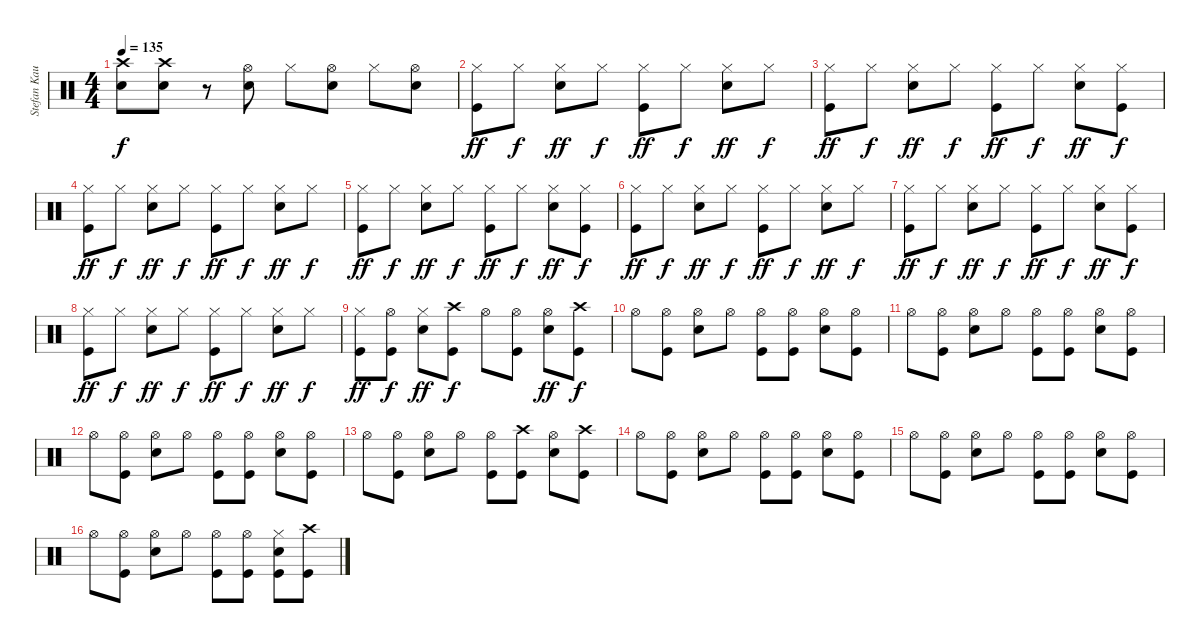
\track ("Stefan Kaufmann" "Stefan Kau") {instrument percussion}
\staff {score}
\articulation defaults
\ts (4 4)
\tempo 135
\clef neutral
\ks c
("Crash high (hit)" "Snare (hit) 2").8{dy f} ("Crash high (hit)" "Snare (hit) 2").8 r.8 ("Hi-Hat (open)" "Snare (hit) 2").8 "Hi-Hat (closed)".8 ("Hi-Hat (open)" "Snare (hit) 2").8 "Hi-Hat (closed)".8 ("Hi-Hat (open)" "Snare (hit) 2").8 |
("Hi-Hat (closed)" "Kick (hit)").8{dy ff} "Hi-Hat (closed)".8{dy f} ("Hi-Hat (closed)" "Snare (hit) 2").8{dy ff} "Hi-Hat (closed)".8{dy f} ("Hi-Hat (closed)" "Kick (hit)").8{dy ff} "Hi-Hat (closed)".8{dy f} ("Hi-Hat (closed)" "Snare (hit) 2").8{dy ff} "Hi-Hat (closed)".8{dy f} |
("Hi-Hat (closed)" "Kick (hit)").8{dy ff} "Hi-Hat (closed)".8{dy f} ("Hi-Hat (closed)" "Snare (hit) 2").8{dy ff} "Hi-Hat (closed)".8{dy f} ("Hi-Hat (closed)" "Kick (hit)").8{dy ff} "Hi-Hat (closed)".8{dy f} ("Hi-Hat (closed)" "Snare (hit) 2").8{dy ff} ("Hi-Hat (closed)" "Kick (hit)").8{dy f} |
("Hi-Hat (closed)" "Kick (hit)").8{dy ff} "Hi-Hat (closed)".8{dy f} ("Hi-Hat (closed)" "Snare (hit) 2").8{dy ff} "Hi-Hat (closed)".8{dy f} ("Hi-Hat (closed)" "Kick (hit)").8{dy ff} "Hi-Hat (closed)".8{dy f} ("Hi-Hat (closed)" "Snare (hit) 2").8{dy ff} "Hi-Hat (closed)".8{dy f} |
("Hi-Hat (closed)" "Kick (hit)").8{dy ff} "Hi-Hat (closed)".8{dy f} ("Hi-Hat (closed)" "Snare (hit) 2").8{dy ff} "Hi-Hat (closed)".8{dy f} ("Hi-Hat (closed)" "Kick (hit)").8{dy ff} "Hi-Hat (closed)".8{dy f} ("Hi-Hat (closed)" "Snare (hit) 2").8{dy ff} ("Hi-Hat (closed)" "Kick (hit)").8{dy f} |
("Hi-Hat (closed)" "Kick (hit)").8{dy ff} "Hi-Hat (closed)".8{dy f} ("Hi-Hat (closed)" "Snare (hit) 2").8{dy ff} "Hi-Hat (closed)".8{dy f} ("Hi-Hat (closed)" "Kick (hit)").8{dy ff} "Hi-Hat (closed)".8{dy f} ("Hi-Hat (closed)" "Snare (hit) 2").8{dy ff} "Hi-Hat (closed)".8{dy f} |
("Hi-Hat (closed)" "Kick (hit)").8{dy ff} "Hi-Hat (closed)".8{dy f} ("Hi-Hat (closed)" "Snare (hit) 2").8{dy ff} "Hi-Hat (closed)".8{dy f} ("Hi-Hat (closed)" "Kick (hit)").8{dy ff} "Hi-Hat (closed)".8{dy f} ("Hi-Hat (closed)" "Snare (hit) 2").8{dy ff} ("Hi-Hat (closed)" "Kick (hit)").8{dy f} |
("Hi-Hat (closed)" "Kick (hit)").8{dy ff} "Hi-Hat (closed)".8{dy f} ("Hi-Hat (closed)" "Snare (hit) 2").8{dy ff} "Hi-Hat (closed)".8{dy f} ("Hi-Hat (closed)" "Kick (hit)").8{dy ff} "Hi-Hat (closed)".8{dy f} ("Hi-Hat (closed)" "Snare (hit) 2").8{dy ff} "Hi-Hat (closed)".8{dy f} |
("Hi-Hat (closed)" "Kick (hit)").8{dy ff} ("Hi-Hat (open)" "Kick (hit)").8{dy f} ("Hi-Hat (closed)" "Snare (hit) 2").8{dy ff} ("Crash high (hit)" "Kick (hit)").8{dy f} "Hi-Hat (open)".8 ("Hi-Hat (open)" "Kick (hit)").8 ("Hi-Hat (open)" "Snare (hit) 2").8{dy ff} ("Crash high (hit)" "Kick (hit)").8{dy f} |
"Hi-Hat (open)".8 ("Hi-Hat (open)" "Kick (hit)").8 ("Hi-Hat (open)" "Snare (hit) 2").8 "Hi-Hat (open)".8 ("Hi-Hat (open)" "Kick (hit)").8 ("Hi-Hat (open)" "Kick (hit)").8 ("Hi-Hat (open)" "Snare (hit) 2").8 ("Hi-Hat (open)" "Kick (hit)").8 |
"Hi-Hat (open)".8 ("Hi-Hat (open)" "Kick (hit)").8 ("Hi-Hat (open)" "Snare (hit) 2").8 "Hi-Hat (open)".8 ("Hi-Hat (open)" "Kick (hit)").8 ("Hi-Hat (open)" "Kick (hit)").8 ("Hi-Hat (open)" "Snare (hit) 2").8 ("Hi-Hat (open)" "Kick (hit)").8 |
"Hi-Hat (open)".8 ("Hi-Hat (open)" "Kick (hit)").8 ("Hi-Hat (open)" "Snare (hit) 2").8 "Hi-Hat (open)".8 ("Hi-Hat (open)" "Kick (hit)").8 ("Hi-Hat (open)" "Kick (hit)").8 ("Hi-Hat (open)" "Snare (hit) 2").8 ("Hi-Hat (open)" "Kick (hit)").8 |
"Hi-Hat (open)".8 ("Hi-Hat (open)" "Kick (hit)").8 ("Hi-Hat (open)" "Snare (hit) 2").8 "Hi-Hat (open)".8 ("Hi-Hat (open)" "Kick (hit)").8 ("Crash high (hit)" "Kick (hit)").8 ("Hi-Hat (open)" "Snare (hit) 2").8 ("Crash high (hit)" "Kick (hit)").8 |
"Hi-Hat (open)".8 ("Hi-Hat (open)" "Kick (hit)").8 ("Hi-Hat (open)" "Snare (hit) 2").8 "Hi-Hat (open)".8 ("Hi-Hat (open)" "Kick (hit)").8 ("Hi-Hat (open)" "Kick (hit)").8 ("Hi-Hat (open)" "Snare (hit) 2").8 ("Hi-Hat (open)" "Kick (hit)").8 |
"Hi-Hat (open)".8 ("Hi-Hat (open)" "Kick (hit)").8 ("Hi-Hat (open)" "Snare (hit) 2").8 "Hi-Hat (open)".8 ("Hi-Hat (open)" "Kick (hit)").8 ("Hi-Hat (open)" "Kick (hit)").8 ("Hi-Hat (open)" "Snare (hit) 2").8 ("Hi-Hat (open)" "Kick (hit)").8 |
"Hi-Hat (open)".8 ("Hi-Hat (open)" "Kick (hit)").8 ("Hi-Hat (open)" "Snare (hit) 2").8 "Hi-Hat (open)".8 ("Hi-Hat (open)" "Kick (hit)").8 ("Hi-Hat (open)" "Kick (hit)").8 ("Hi-Hat (closed)" "Snare (hit) 2" "Kick (hit)").8 ("Crash high (hit)" "Kick (hit)").8
